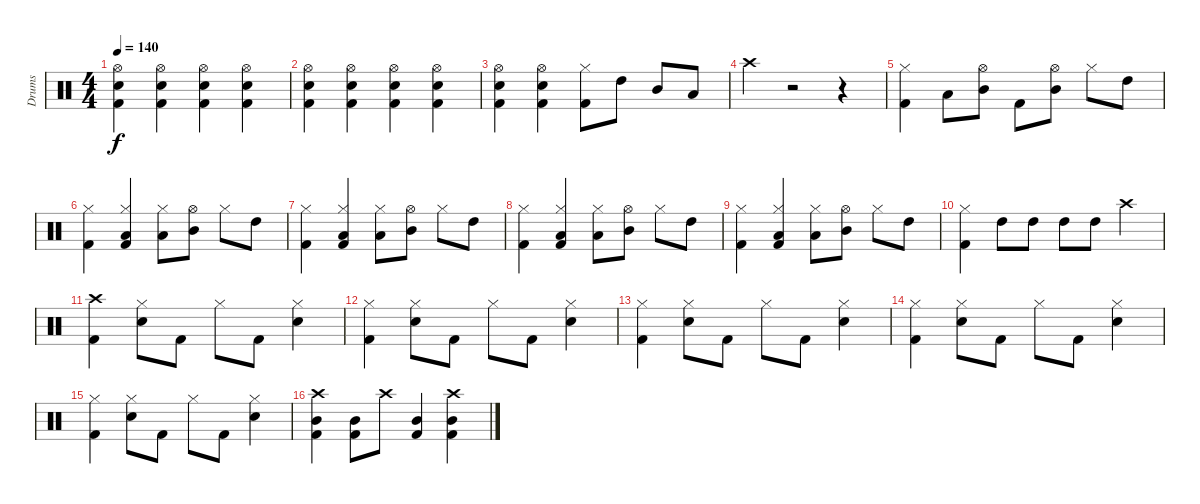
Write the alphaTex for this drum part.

\track ("Drums" "Drums") {instrument percussion}
\staff {score}
\articulation defaults
\ts (4 4)
\tempo 140
\clef neutral
\ks c
("Hi-Hat (open)" "Snare (hit) 2" "Kick (hit) 2").4{dy f} ("Hi-Hat (open)" "Snare (hit) 2" "Kick (hit) 2").4 ("Hi-Hat (open)" "Snare (hit) 2" "Kick (hit) 2").4 ("Hi-Hat (open)" "Snare (hit) 2" "Kick (hit) 2").4 |
("Hi-Hat (open)" "Snare (hit) 2" "Kick (hit) 2").4 ("Hi-Hat (open)" "Snare (hit) 2" "Kick (hit) 2").4 ("Hi-Hat (open)" "Snare (hit) 2" "Kick (hit) 2").4 ("Hi-Hat (open)" "Snare (hit) 2" "Kick (hit) 2").4 |
("Hi-Hat (open)" "Snare (hit) 2" "Kick (hit) 2").4 ("Hi-Hat (open)" "Snare (hit) 2" "Kick (hit) 2").4 ("Hi-Hat (closed)" "Kick (hit) 2").8 "High Tom (hit)".8 "Mid Tom (hit)".8 "Low Tom (hit)".8 |
"Crash high (hit)".4 r.2 r.4 |
("Hi-Hat (closed)" "Kick (hit) 2").4 "Low Tom (hit)".8 ("Hi-Hat (open)" "Mid Tom (hit)").8 "Kick (hit) 2".8 ("Hi-Hat (open)" "Mid Tom (hit)").8 "Hi-Hat (closed)".8 "High Tom (hit)".8 |
("Hi-Hat (closed)" "Kick (hit) 2").4 ("Hi-Hat (closed)" "Low Tom (hit)" "Kick (hit) 2").4 ("Hi-Hat (closed)" "Low Tom (hit)").8 ("Hi-Hat (open)" "Mid Tom (hit)").8 "Hi-Hat (closed)".8 "High Tom (hit)".8 |
("Hi-Hat (closed)" "Kick (hit) 2").4 ("Hi-Hat (closed)" "Low Tom (hit)" "Kick (hit) 2").4 ("Hi-Hat (closed)" "Low Tom (hit)").8 ("Hi-Hat (open)" "Mid Tom (hit)").8 "Hi-Hat (closed)".8 "High Tom (hit)".8 |
("Hi-Hat (closed)" "Kick (hit) 2").4 ("Hi-Hat (closed)" "Low Tom (hit)" "Kick (hit) 2").4 ("Hi-Hat (closed)" "Low Tom (hit)").8 ("Hi-Hat (open)" "Mid Tom (hit)").8 "Hi-Hat (closed)".8 "High Tom (hit)".8 |
("Hi-Hat (closed)" "Kick (hit) 2").4 ("Hi-Hat (closed)" "Low Tom (hit)" "Kick (hit) 2").4 ("Hi-Hat (closed)" "Low Tom (hit)").8 ("Hi-Hat (open)" "Mid Tom (hit)").8 "Hi-Hat (closed)".8 "High Tom (hit)".8 |
("Hi-Hat (closed)" "Kick (hit) 2").4 "High Tom (hit)".8 "High Tom (hit)".8 "High Tom (hit)".8 "High Tom (hit)".8 "Crash high (hit)".4 |
("Crash high (hit)" "Kick (hit) 2").4 ("Hi-Hat (closed)" "Snare (hit) 2").8 "Kick (hit) 2".8 "Hi-Hat (closed)".8 "Kick (hit) 2".8 ("Hi-Hat (closed)" "Snare (hit) 2").4 |
("Hi-Hat (closed)" "Kick (hit) 2").4 ("Hi-Hat (closed)" "Snare (hit) 2").8 "Kick (hit) 2".8 "Hi-Hat (closed)".8 "Kick (hit) 2".8 ("Hi-Hat (closed)" "Snare (hit) 2").4 |
("Hi-Hat (closed)" "Kick (hit) 2").4 ("Hi-Hat (closed)" "Snare (hit) 2").8 "Kick (hit) 2".8 "Hi-Hat (closed)".8 "Kick (hit) 2".8 ("Hi-Hat (closed)" "Snare (hit) 2").4 |
("Hi-Hat (closed)" "Kick (hit) 2").4 ("Hi-Hat (closed)" "Snare (hit) 2").8 "Kick (hit) 2".8 "Hi-Hat (closed)".8 "Kick (hit) 2".8 ("Hi-Hat (closed)" "Snare (hit) 2").4 |
("Hi-Hat (closed)" "Kick (hit) 2").4 ("Hi-Hat (closed)" "Snare (hit) 2").8 "Kick (hit) 2".8 "Hi-Hat (closed)".8 "Kick (hit) 2".8 ("Hi-Hat (closed)" "Snare (hit) 2").4 |
("Crash high (hit)" "Mid Tom (hit)" "Kick (hit) 2").4 ("Mid Tom (hit)" "Kick (hit) 2").8 "Crash high (hit)".8 ("Mid Tom (hit)" "Kick (hit) 2").4 ("Crash high (hit)" "Mid Tom (hit)" "Kick (hit) 2").4
